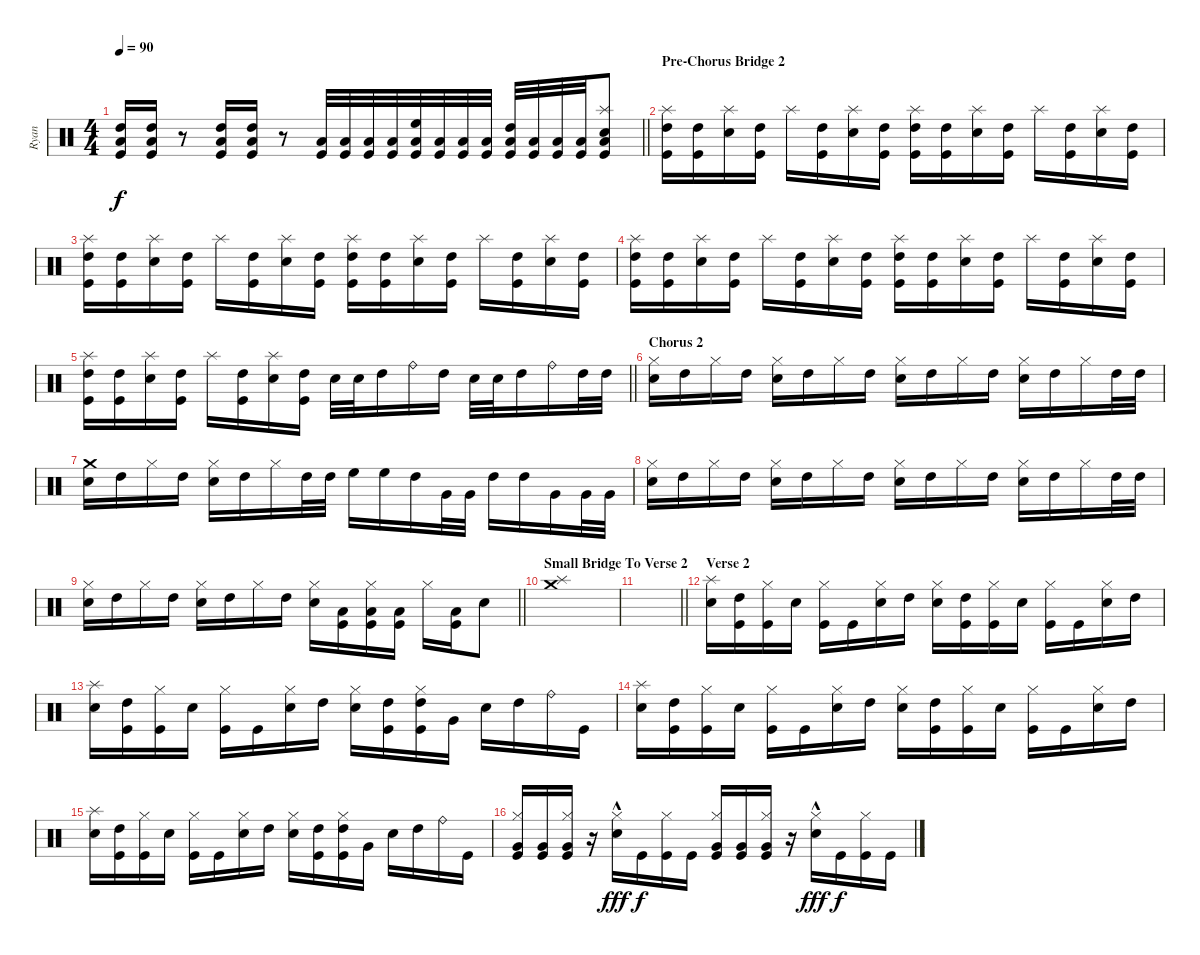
\track ("Ryan" "Ryan") {instrument percussion}
\staff {score}
\articulation defaults
\ts (4 4)
\tempo 90
\clef neutral
\barLineRight lightlight
\ks c
("High Tom (hit)" "Low Floor Tom (hit)" "Kick (hit)").16{dy f} ("High Tom (hit)" "Low Floor Tom (hit)" "Kick (hit)").16 r.8 ("High Tom (hit)" "Low Floor Tom (hit)" "Kick (hit)").16 ("High Tom (hit)" "Low Floor Tom (hit)" "Kick (hit)").16 r.8 ("Kick (hit)" "Low Floor Tom (hit)").32 ("Kick (hit)" "Low Floor Tom (hit)").32 ("Kick (hit)" "Low Floor Tom (hit)").32 ("Kick (hit)" "Low Floor Tom (hit)").32 ("High Floor Tom (hit)" "Kick (hit)" "Low Floor Tom (hit)").32 ("Kick (hit)" "Low Floor Tom (hit)").32 ("Kick (hit)" "Low Floor Tom (hit)").32 ("Kick (hit)" "Low Floor Tom (hit)").32 ("High Tom (hit)" "Kick (hit)" "Low Floor Tom (hit)").32 ("Kick (hit)" "Low Floor Tom (hit)").32 ("Kick (hit)" "Low Floor Tom (hit)").32 ("Kick (hit)" "Low Floor Tom (hit)").32 ("Splash (hit)" "Snare (hit) 2" "Kick (hit)" "Low Floor Tom (hit)").8 |
\section ("" "Pre-Chorus Bridge 2")
("Splash (hit)" "Kick (hit)" "High Tom (hit)").16 ("Kick (hit)" "High Tom (hit)").16 ("Splash (hit)" "Snare (hit) 2").16 ("Kick (hit)" "High Tom (hit)").16 "Splash (hit)".16 ("Kick (hit)" "High Tom (hit)").16 ("Splash (hit)" "Snare (hit) 2").16 ("Kick (hit)" "High Tom (hit)").16 ("Splash (hit)" "Kick (hit)" "High Tom (hit)").16 ("Kick (hit)" "High Tom (hit)").16 ("Splash (hit)" "Snare (hit) 2").16 ("Kick (hit)" "High Tom (hit)").16 "Splash (hit)".16 ("Kick (hit)" "High Tom (hit)").16 ("Splash (hit)" "Snare (hit) 2").16 ("Kick (hit)" "High Tom (hit)").16 |
("Splash (hit)" "Kick (hit)" "High Tom (hit)").16 ("Kick (hit)" "High Tom (hit)").16 ("Splash (hit)" "Snare (hit) 2").16 ("Kick (hit)" "High Tom (hit)").16 "Splash (hit)".16 ("Kick (hit)" "High Tom (hit)").16 ("Splash (hit)" "Snare (hit) 2").16 ("Kick (hit)" "High Tom (hit)").16 ("Splash (hit)" "Kick (hit)" "High Tom (hit)").16 ("Kick (hit)" "High Tom (hit)").16 ("Splash (hit)" "Snare (hit) 2").16 ("Kick (hit)" "High Tom (hit)").16 "Splash (hit)".16 ("Kick (hit)" "High Tom (hit)").16 ("Splash (hit)" "Snare (hit) 2").16 ("Kick (hit)" "High Tom (hit)").16 |
("Splash (hit)" "Kick (hit)" "High Tom (hit)").16 ("Kick (hit)" "High Tom (hit)").16 ("Splash (hit)" "Snare (hit) 2").16 ("Kick (hit)" "High Tom (hit)").16 "Splash (hit)".16 ("Kick (hit)" "High Tom (hit)").16 ("Splash (hit)" "Snare (hit) 2").16 ("Kick (hit)" "High Tom (hit)").16 ("Splash (hit)" "Kick (hit)" "High Tom (hit)").16 ("Kick (hit)" "High Tom (hit)").16 ("Splash (hit)" "Snare (hit) 2").16 ("Kick (hit)" "High Tom (hit)").16 "Splash (hit)".16 ("Kick (hit)" "High Tom (hit)").16 ("Splash (hit)" "Snare (hit) 2").16 ("Kick (hit)" "High Tom (hit)").16 |
\barLineRight lightlight
("Splash (hit)" "Kick (hit)" "High Tom (hit)").16 ("Kick (hit)" "High Tom (hit)").16 ("Splash (hit)" "Snare (hit) 2").16 ("Kick (hit)" "High Tom (hit)").16 "Splash (hit)".16 ("Kick (hit)" "High Tom (hit)").16 ("Splash (hit)" "Snare (hit) 2").16 ("Kick (hit)" "High Tom (hit)").16 "Snare (hit) 2".32 "Snare (hit) 2".32 "High Tom (hit)".16 "Ride (bell)".16 "High Tom (hit)".16 "Snare (hit) 2".32 "Snare (hit) 2".32 "High Tom (hit)".16 "Ride (bell)".16 "High Tom (hit)".32 "High Tom (hit)".32 |
\section ("" "Chorus 2")
("Hi-Hat (closed)" "Snare (hit) 2").16 "High Tom (hit)".16 "Hi-Hat (closed)".16 "High Tom (hit)".16 ("Hi-Hat (closed)" "Snare (hit) 2").16 "High Tom (hit)".16 "Hi-Hat (closed)".16 "High Tom (hit)".16 ("Hi-Hat (closed)" "Snare (hit) 2").16 "High Tom (hit)".16 "Hi-Hat (closed)".16 "High Tom (hit)".16 ("Hi-Hat (closed)" "Snare (hit) 2").16 "High Tom (hit)".16 "Hi-Hat (closed)".16 "High Tom (hit)".32 "High Tom (hit)".32 |
("Crash medium (hit)" "Snare (hit) 2").16 "High Tom (hit)".16 "Hi-Hat (closed)".16 "High Tom (hit)".16 ("Hi-Hat (closed)" "Snare (hit) 2").16 "High Tom (hit)".16 "Hi-Hat (closed)".16 "High Tom (hit)".32 "High Tom (hit)".32 "High Floor Tom (hit)".16 "High Floor Tom (hit)".16 "High Tom (hit)".16 "Very Low Tom (hit)".32 "Very Low Tom (hit)".32 "High Tom (hit)".16 "High Tom (hit)".16 "Very Low Tom (hit)".16 "Very Low Tom (hit)".32 "Very Low Tom (hit)".32 |
("Hi-Hat (closed)" "Snare (hit) 2").16 "High Tom (hit)".16 "Hi-Hat (closed)".16 "High Tom (hit)".16 ("Hi-Hat (closed)" "Snare (hit) 2").16 "High Tom (hit)".16 "Hi-Hat (closed)".16 "High Tom (hit)".16 ("Hi-Hat (closed)" "Snare (hit) 2").16 "High Tom (hit)".16 "Hi-Hat (closed)".16 "High Tom (hit)".16 ("Hi-Hat (closed)" "Snare (hit) 2").16 "High Tom (hit)".16 "Hi-Hat (closed)".16 "High Tom (hit)".32 "High Tom (hit)".32 |
\barLineRight lightlight
("Hi-Hat (closed)" "Snare (hit) 2").16 "High Tom (hit)".16 "Hi-Hat (closed)".16 "High Tom (hit)".16 ("Hi-Hat (closed)" "Snare (hit) 2").16 "High Tom (hit)".16 "Hi-Hat (closed)".16 "High Tom (hit)".16 ("Hi-Hat (closed)" "Snare (hit) 2").16 ("Kick (hit)" "Low Floor Tom (hit)").16 ("Hi-Hat (closed)" "Kick (hit)" "Low Floor Tom (hit)").16 ("Kick (hit)" "Low Floor Tom (hit)").16 "Hi-Hat (closed)".16 ("Kick (hit)" "Low Floor Tom (hit)").16 "Snare (hit) 2".8 |
\section ("" "Small Bridge To Verse 2")
("Crash medium (hit)" "Splash (hit)").1 |
\barLineRight lightlight
|
\section ("" "Verse 2")
("Splash (hit)" "Snare (hit) 2").16 ("High Tom (hit)" "Kick (hit)").16 ("Hi-Hat (closed)" "Kick (hit)").16 "Snare (hit) 2".16 ("Hi-Hat (closed)" "Kick (hit)").16 "Kick (hit)".16 ("Hi-Hat (closed)" "Snare (hit) 2").16 "High Tom (hit)".16 ("Hi-Hat (closed)" "Snare (hit) 2").16 ("High Tom (hit)" "Kick (hit)").16 ("Hi-Hat (closed)" "Kick (hit)").16 "Snare (hit) 2".16 ("Hi-Hat (closed)" "Kick (hit)").16 "Kick (hit)".16 ("Hi-Hat (closed)" "Snare (hit) 2").16 "High Tom (hit)".16 |
("Splash (hit)" "Snare (hit) 2").16 ("High Tom (hit)" "Kick (hit)").16 ("Hi-Hat (closed)" "Kick (hit)").16 "Snare (hit) 2".16 ("Hi-Hat (closed)" "Kick (hit)").16 "Kick (hit)".16 ("Hi-Hat (closed)" "Snare (hit) 2").16 "High Tom (hit)".16 ("Snare (hit) 2" "Hi-Hat (closed)").16 ("High Tom (hit)" "Kick (hit)").16 ("Hi-Hat (closed)" "High Tom (hit)" "Kick (hit)").16 "Very Low Tom (hit)".16 "Snare (hit) 2".16 "High Tom (hit)".16 "Ride (bell)".16 "Kick (hit)".16 |
("Splash (hit)" "Snare (hit) 2").16 ("High Tom (hit)" "Kick (hit)").16 ("Hi-Hat (closed)" "Kick (hit)").16 "Snare (hit) 2".16 ("Hi-Hat (closed)" "Kick (hit)").16 "Kick (hit)".16 ("Hi-Hat (closed)" "Snare (hit) 2").16 "High Tom (hit)".16 ("Hi-Hat (closed)" "Snare (hit) 2").16 ("High Tom (hit)" "Kick (hit)").16 ("Hi-Hat (closed)" "Kick (hit)").16 "Snare (hit) 2".16 ("Hi-Hat (closed)" "Kick (hit)").16 "Kick (hit)".16 ("Hi-Hat (closed)" "Snare (hit) 2").16 "High Tom (hit)".16 |
("Splash (hit)" "Snare (hit) 2").16 ("High Tom (hit)" "Kick (hit)").16 ("Hi-Hat (closed)" "Kick (hit)").16 "Snare (hit) 2".16 ("Hi-Hat (closed)" "Kick (hit)").16 "Kick (hit)".16 ("Hi-Hat (closed)" "Snare (hit) 2").16 "High Tom (hit)".16 ("Snare (hit) 2" "Hi-Hat (closed)").16 ("High Tom (hit)" "Kick (hit)").16 ("Hi-Hat (closed)" "High Tom (hit)" "Kick (hit)").16 "Very Low Tom (hit)".16 "Snare (hit) 2".16 "High Tom (hit)".16 "Ride (bell)".16 "Kick (hit)".16 |
("Hi-Hat (closed)" "Kick (hit)" "Very Low Tom (hit)").16 ("Kick (hit)" "Very Low Tom (hit)").16 ("Hi-Hat (closed)" "Kick (hit)" "Very Low Tom (hit)").16 r.16 ("Hi-Hat (closed)" "Snare (hit) 2"{hac}).16{dy fff} "Kick (hit)".16{dy f} ("Hi-Hat (closed)" "Kick (hit)").16 "Kick (hit)".16 ("Hi-Hat (closed)" "Kick (hit)" "Very Low Tom (hit)").16 ("Kick (hit)" "Very Low Tom (hit)").16 ("Hi-Hat (closed)" "Kick (hit)" "Very Low Tom (hit)").16 r.16 ("Hi-Hat (closed)" "Snare (hit) 2"{hac}).16{dy fff} "Kick (hit)".16{dy f} ("Hi-Hat (closed)" "Kick (hit)").16 "Kick (hit)".16
